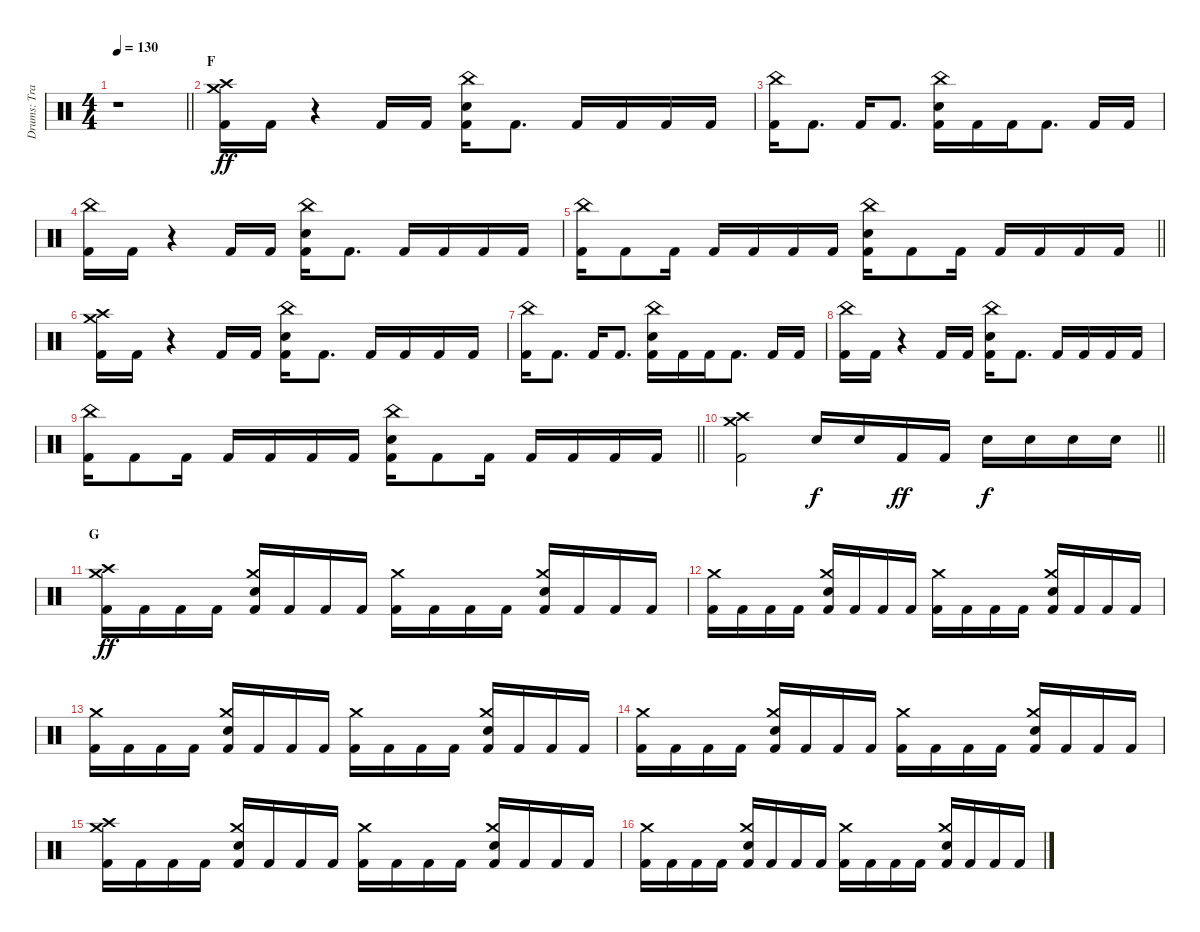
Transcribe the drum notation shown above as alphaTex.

\track ("Drums: Travis Clarke" "Drums: Tra") {instrument percussion}
\staff {score}
\articulation defaults
\ts (4 4)
\tempo 130
\clef neutral
\barLineRight lightlight
\ks c
r.1{dy ff} |
\section ("" "F")
("Kick (hit) 2" "Crash high (hit)" "Crash medium (hit)").16 "Kick (hit) 2".16 r.4 "Kick (hit) 2".16 "Kick (hit) 2".16 ("Kick (hit) 2" "Snare (hit) 2" "China (hit)").16 "Kick (hit) 2".8{d} "Kick (hit) 2".16 "Kick (hit) 2".16 "Kick (hit) 2".16 "Kick (hit) 2".16 |
("Kick (hit) 2" "China (hit)").16 "Kick (hit) 2".8{d} "Kick (hit) 2".16 "Kick (hit) 2".8{d} ("Kick (hit) 2" "Snare (hit) 2" "China (hit)").16 "Kick (hit) 2".16 "Kick (hit) 2".16 "Kick (hit) 2".8{d} "Kick (hit) 2".16 "Kick (hit) 2".16 |
("Kick (hit) 2" "China (hit)").16 "Kick (hit) 2".16 r.4 "Kick (hit) 2".16 "Kick (hit) 2".16 ("Kick (hit) 2" "Snare (hit) 2" "China (hit)").16 "Kick (hit) 2".8{d} "Kick (hit) 2".16 "Kick (hit) 2".16 "Kick (hit) 2".16 "Kick (hit) 2".16 |
\barLineRight lightlight
("Kick (hit) 2" "China (hit)").16 "Kick (hit) 2".8 "Kick (hit) 2".16 "Kick (hit) 2".16 "Kick (hit) 2".16 "Kick (hit) 2".16 "Kick (hit) 2".16 ("Kick (hit) 2" "Snare (hit) 2" "China (hit)").16 "Kick (hit) 2".8 "Kick (hit) 2".16 "Kick (hit) 2".16 "Kick (hit) 2".16 "Kick (hit) 2".16 "Kick (hit) 2".16 |
("Kick (hit) 2" "Crash high (hit)" "Crash medium (hit)").16 "Kick (hit) 2".16 r.4 "Kick (hit) 2".16 "Kick (hit) 2".16 ("Kick (hit) 2" "Snare (hit) 2" "China (hit)").16 "Kick (hit) 2".8{d} "Kick (hit) 2".16 "Kick (hit) 2".16 "Kick (hit) 2".16 "Kick (hit) 2".16 |
("Kick (hit) 2" "China (hit)").16 "Kick (hit) 2".8{d} "Kick (hit) 2".16 "Kick (hit) 2".8{d} ("Kick (hit) 2" "Snare (hit) 2" "China (hit)").16 "Kick (hit) 2".16 "Kick (hit) 2".16 "Kick (hit) 2".8{d} "Kick (hit) 2".16 "Kick (hit) 2".16 |
("Kick (hit) 2" "China (hit)").16 "Kick (hit) 2".16 r.4 "Kick (hit) 2".16 "Kick (hit) 2".16 ("Kick (hit) 2" "Snare (hit) 2" "China (hit)").16 "Kick (hit) 2".8{d} "Kick (hit) 2".16 "Kick (hit) 2".16 "Kick (hit) 2".16 "Kick (hit) 2".16 |
\barLineRight lightlight
("Kick (hit) 2" "China (hit)").16 "Kick (hit) 2".8 "Kick (hit) 2".16 "Kick (hit) 2".16 "Kick (hit) 2".16 "Kick (hit) 2".16 "Kick (hit) 2".16 ("Kick (hit) 2" "Snare (hit) 2" "China (hit)").16 "Kick (hit) 2".8 "Kick (hit) 2".16 "Kick (hit) 2".16 "Kick (hit) 2".16 "Kick (hit) 2".16 "Kick (hit) 2".16 |
\barLineRight lightlight
("Kick (hit) 2" "Crash high (hit)" "Crash medium (hit)").2 "Snare (hit) 2".16{dy f} "Snare (hit) 2".16 "Kick (hit) 2".16{dy ff} "Kick (hit) 2".16 "Snare (hit) 2".16{dy f} "Snare (hit) 2".16 "Snare (hit) 2".16 "Snare (hit) 2".16 |
\section ("" "G")
("Kick (hit) 2" "Crash high (hit)" "Crash medium (hit)").16{dy ff} "Kick (hit) 2".16 "Kick (hit) 2".16 "Kick (hit) 2".16 ("Kick (hit) 2" "Snare (hit) 2" "Crash medium (hit)").16 "Kick (hit) 2".16 "Kick (hit) 2".16 "Kick (hit) 2".16 ("Kick (hit) 2" "Crash medium (hit)").16 "Kick (hit) 2".16 "Kick (hit) 2".16 "Kick (hit) 2".16 ("Kick (hit) 2" "Snare (hit) 2" "Crash medium (hit)").16 "Kick (hit) 2".16 "Kick (hit) 2".16 "Kick (hit) 2".16 |
("Kick (hit) 2" "Crash medium (hit)").16 "Kick (hit) 2".16 "Kick (hit) 2".16 "Kick (hit) 2".16 ("Kick (hit) 2" "Snare (hit) 2" "Crash medium (hit)").16 "Kick (hit) 2".16 "Kick (hit) 2".16 "Kick (hit) 2".16 ("Kick (hit) 2" "Crash medium (hit)").16 "Kick (hit) 2".16 "Kick (hit) 2".16 "Kick (hit) 2".16 ("Kick (hit) 2" "Snare (hit) 2" "Crash medium (hit)").16 "Kick (hit) 2".16 "Kick (hit) 2".16 "Kick (hit) 2".16 |
("Kick (hit) 2" "Crash medium (hit)").16 "Kick (hit) 2".16 "Kick (hit) 2".16 "Kick (hit) 2".16 ("Kick (hit) 2" "Snare (hit) 2" "Crash medium (hit)").16 "Kick (hit) 2".16 "Kick (hit) 2".16 "Kick (hit) 2".16 ("Kick (hit) 2" "Crash medium (hit)").16 "Kick (hit) 2".16 "Kick (hit) 2".16 "Kick (hit) 2".16 ("Kick (hit) 2" "Snare (hit) 2" "Crash medium (hit)").16 "Kick (hit) 2".16 "Kick (hit) 2".16 "Kick (hit) 2".16 |
("Kick (hit) 2" "Crash medium (hit)").16 "Kick (hit) 2".16 "Kick (hit) 2".16 "Kick (hit) 2".16 ("Kick (hit) 2" "Snare (hit) 2" "Crash medium (hit)").16 "Kick (hit) 2".16 "Kick (hit) 2".16 "Kick (hit) 2".16 ("Kick (hit) 2" "Crash medium (hit)").16 "Kick (hit) 2".16 "Kick (hit) 2".16 "Kick (hit) 2".16 ("Kick (hit) 2" "Snare (hit) 2" "Crash medium (hit)").16 "Kick (hit) 2".16 "Kick (hit) 2".16 "Kick (hit) 2".16 |
("Kick (hit) 2" "Crash high (hit)" "Crash medium (hit)").16 "Kick (hit) 2".16 "Kick (hit) 2".16 "Kick (hit) 2".16 ("Kick (hit) 2" "Snare (hit) 2" "Crash medium (hit)").16 "Kick (hit) 2".16 "Kick (hit) 2".16 "Kick (hit) 2".16 ("Kick (hit) 2" "Crash medium (hit)").16 "Kick (hit) 2".16 "Kick (hit) 2".16 "Kick (hit) 2".16 ("Kick (hit) 2" "Snare (hit) 2" "Crash medium (hit)").16 "Kick (hit) 2".16 "Kick (hit) 2".16 "Kick (hit) 2".16 |
("Kick (hit) 2" "Crash medium (hit)").16 "Kick (hit) 2".16 "Kick (hit) 2".16 "Kick (hit) 2".16 ("Kick (hit) 2" "Snare (hit) 2" "Crash medium (hit)").16 "Kick (hit) 2".16 "Kick (hit) 2".16 "Kick (hit) 2".16 ("Kick (hit) 2" "Crash medium (hit)").16 "Kick (hit) 2".16 "Kick (hit) 2".16 "Kick (hit) 2".16 ("Kick (hit) 2" "Snare (hit) 2" "Crash medium (hit)").16 "Kick (hit) 2".16 "Kick (hit) 2".16 "Kick (hit) 2".16
